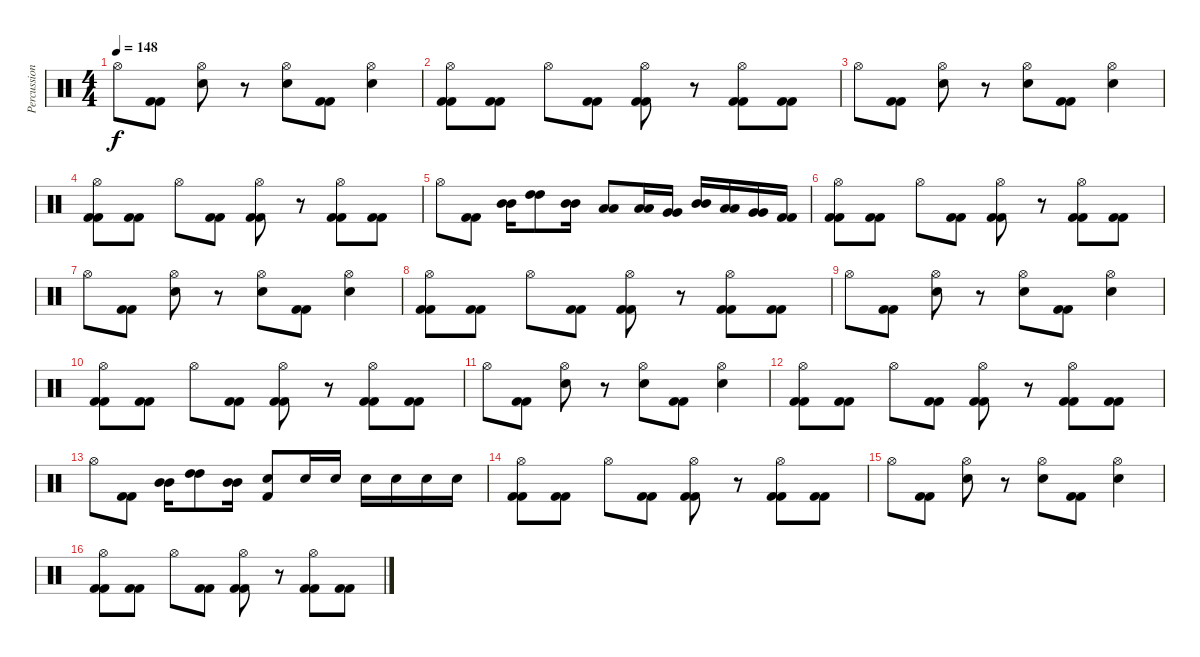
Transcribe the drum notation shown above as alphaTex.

\track ("Percussion" "Percussion") {instrument percussion}
\staff {score}
\articulation defaults
\ts (4 4)
\tempo 148
\clef neutral
\ks c "Hi-Hat (open)".8{dy f}
("Kick (hit) 2" "Kick (hit) 2").8 ("Hi-Hat (open)" "Electric Snare (hit)").8 r.8 ("Hi-Hat (open)" "Electric Snare (hit)").8 ("Kick (hit) 2" "Kick (hit) 2").8 ("Hi-Hat (open)" "Electric Snare (hit)").4 |
("Hi-Hat (open)" "Kick (hit) 2" "Kick (hit) 2").8 ("Kick (hit) 2" "Kick (hit) 2").8 "Hi-Hat (open)".8 ("Kick (hit) 2" "Kick (hit) 2").8 ("Hi-Hat (open)" "Kick (hit) 2" "Kick (hit) 2").8 r.8 ("Hi-Hat (open)" "Kick (hit) 2" "Kick (hit) 2").8 ("Kick (hit) 2" "Kick (hit) 2").8 |
"Hi-Hat (open)".8 ("Kick (hit) 2" "Kick (hit) 2").8 ("Hi-Hat (open)" "Electric Snare (hit)").8 r.8 ("Hi-Hat (open)" "Electric Snare (hit)").8 ("Kick (hit) 2" "Kick (hit) 2").8 ("Hi-Hat (open)" "Electric Snare (hit)").4 |
("Hi-Hat (open)" "Kick (hit) 2" "Kick (hit) 2").8 ("Kick (hit) 2" "Kick (hit) 2").8 "Hi-Hat (open)".8 ("Kick (hit) 2" "Kick (hit) 2").8 ("Hi-Hat (open)" "Kick (hit) 2" "Kick (hit) 2").8 r.8 ("Hi-Hat (open)" "Kick (hit) 2" "Kick (hit) 2").8 ("Kick (hit) 2" "Kick (hit) 2").8 |
"Hi-Hat (open)".8 ("Kick (hit) 2" "Kick (hit) 2").8 ("Mid Tom (hit)" "Mid Tom (hit)").16 ("High Tom (hit)" "High Tom (hit)").8{bd 240} ("Mid Tom (hit)" "Mid Tom (hit)").16 ("Low Tom (hit)" "Low Tom (hit)").8{bd 240} ("Low Tom (hit)" "Low Tom (hit)").16 ("Very Low Tom (hit)" "Very Low Tom (hit)").16 ("Mid Tom (hit)" "Mid Tom (hit)").16 ("Low Tom (hit)" "Low Tom (hit)").16 ("Very Low Tom (hit)" "Very Low Tom (hit)").16 ("Kick (hit) 2" "Kick (hit) 2").16 |
("Hi-Hat (open)" "Kick (hit) 2" "Kick (hit) 2").8 ("Kick (hit) 2" "Kick (hit) 2").8 "Hi-Hat (open)".8 ("Kick (hit) 2" "Kick (hit) 2").8 ("Hi-Hat (open)" "Kick (hit) 2" "Kick (hit) 2").8 r.8 ("Hi-Hat (open)" "Kick (hit) 2" "Kick (hit) 2").8 ("Kick (hit) 2" "Kick (hit) 2").8 |
"Hi-Hat (open)".8 ("Kick (hit) 2" "Kick (hit) 2").8 ("Hi-Hat (open)" "Electric Snare (hit)").8 r.8 ("Hi-Hat (open)" "Electric Snare (hit)").8 ("Kick (hit) 2" "Kick (hit) 2").8 ("Hi-Hat (open)" "Electric Snare (hit)").4 |
("Hi-Hat (open)" "Kick (hit) 2" "Kick (hit) 2").8 ("Kick (hit) 2" "Kick (hit) 2").8 "Hi-Hat (open)".8 ("Kick (hit) 2" "Kick (hit) 2").8 ("Hi-Hat (open)" "Kick (hit) 2" "Kick (hit) 2").8 r.8 ("Hi-Hat (open)" "Kick (hit) 2" "Kick (hit) 2").8 ("Kick (hit) 2" "Kick (hit) 2").8 |
"Hi-Hat (open)".8 ("Kick (hit) 2" "Kick (hit) 2").8 ("Hi-Hat (open)" "Electric Snare (hit)").8 r.8 ("Hi-Hat (open)" "Electric Snare (hit)").8 ("Kick (hit) 2" "Kick (hit) 2").8 ("Hi-Hat (open)" "Electric Snare (hit)").4 |
("Hi-Hat (open)" "Kick (hit) 2" "Kick (hit) 2").8 ("Kick (hit) 2" "Kick (hit) 2").8 "Hi-Hat (open)".8 ("Kick (hit) 2" "Kick (hit) 2").8 ("Hi-Hat (open)" "Kick (hit) 2" "Kick (hit) 2").8 r.8 ("Hi-Hat (open)" "Kick (hit) 2" "Kick (hit) 2").8 ("Kick (hit) 2" "Kick (hit) 2").8 |
"Hi-Hat (open)".8 ("Kick (hit) 2" "Kick (hit) 2").8 ("Hi-Hat (open)" "Electric Snare (hit)").8 r.8 ("Hi-Hat (open)" "Electric Snare (hit)").8 ("Kick (hit) 2" "Kick (hit) 2").8 ("Hi-Hat (open)" "Electric Snare (hit)").4 |
("Hi-Hat (open)" "Kick (hit) 2" "Kick (hit) 2").8 ("Kick (hit) 2" "Kick (hit) 2").8 "Hi-Hat (open)".8 ("Kick (hit) 2" "Kick (hit) 2").8 ("Hi-Hat (open)" "Kick (hit) 2" "Kick (hit) 2").8 r.8 ("Hi-Hat (open)" "Kick (hit) 2" "Kick (hit) 2").8 ("Kick (hit) 2" "Kick (hit) 2").8 |
"Hi-Hat (open)".8 ("Kick (hit) 2" "Kick (hit) 2").8 ("Mid Tom (hit)" "Mid Tom (hit)").16 ("High Tom (hit)" "High Tom (hit)").8{bd 240} ("Mid Tom (hit)" "Mid Tom (hit)").16 ("Electric Snare (hit)" "Kick (hit) 2").8 "Electric Snare (hit)".16 "Electric Snare (hit)".16 "Electric Snare (hit)".16 "Electric Snare (hit)".16 "Electric Snare (hit)".16 "Electric Snare (hit)".16 |
("Hi-Hat (open)" "Kick (hit) 2" "Kick (hit) 2").8 ("Kick (hit) 2" "Kick (hit) 2").8 "Hi-Hat (open)".8 ("Kick (hit) 2" "Kick (hit) 2").8 ("Hi-Hat (open)" "Kick (hit) 2" "Kick (hit) 2").8 r.8 ("Hi-Hat (open)" "Kick (hit) 2" "Kick (hit) 2").8 ("Kick (hit) 2" "Kick (hit) 2").8 |
"Hi-Hat (open)".8 ("Kick (hit) 2" "Kick (hit) 2").8 ("Hi-Hat (open)" "Electric Snare (hit)").8 r.8 ("Hi-Hat (open)" "Electric Snare (hit)").8 ("Kick (hit) 2" "Kick (hit) 2").8 ("Hi-Hat (open)" "Electric Snare (hit)").4 |
("Hi-Hat (open)" "Kick (hit) 2" "Kick (hit) 2").8 ("Kick (hit) 2" "Kick (hit) 2").8 "Hi-Hat (open)".8 ("Kick (hit) 2" "Kick (hit) 2").8 ("Hi-Hat (open)" "Kick (hit) 2" "Kick (hit) 2").8 r.8 ("Hi-Hat (open)" "Kick (hit) 2" "Kick (hit) 2").8 ("Kick (hit) 2" "Kick (hit) 2").8
